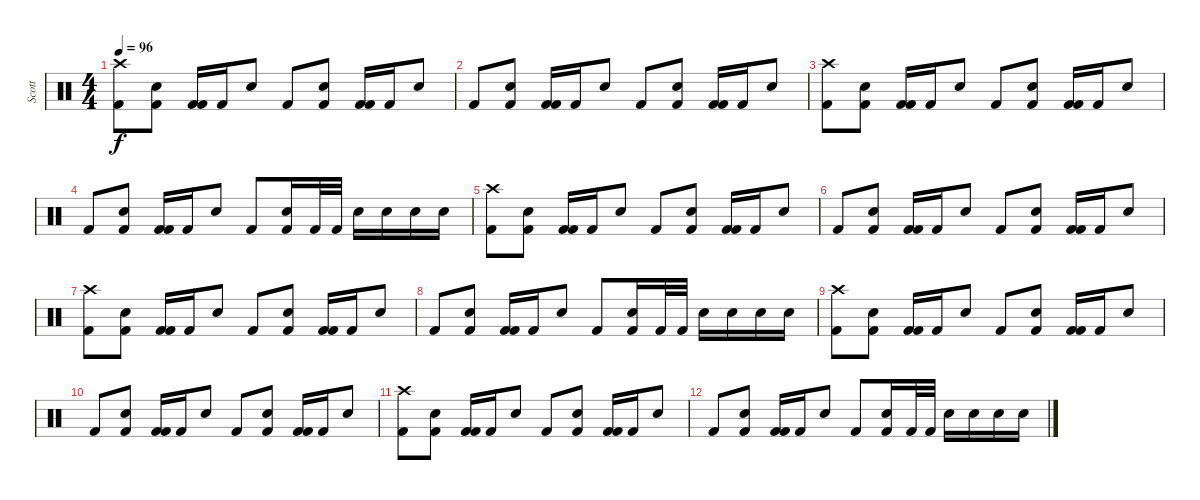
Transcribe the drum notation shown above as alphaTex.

\track ("Scott" "Scott") {instrument percussion}
\staff {score}
\articulation defaults
\ts (4 4)
\tempo 96
\clef neutral
\ks c
("Kick (hit) 2" "Crash high (hit)").8{dy f} ("Kick (hit) 2" "Snare (hit) 2").8 ("Kick (hit) 2" "Kick (hit) 2").16 "Kick (hit) 2".16 "Snare (hit) 2".8 "Kick (hit) 2".8 ("Kick (hit) 2" "Snare (hit) 2").8 ("Kick (hit) 2" "Kick (hit) 2").16 "Kick (hit) 2".16 "Snare (hit) 2".8 |
"Kick (hit) 2".8 ("Kick (hit) 2" "Snare (hit) 2").8 ("Kick (hit) 2" "Kick (hit) 2").16 "Kick (hit) 2".16 "Snare (hit) 2".8 "Kick (hit) 2".8 ("Kick (hit) 2" "Snare (hit) 2").8 ("Kick (hit) 2" "Kick (hit) 2").16 "Kick (hit) 2".16 "Snare (hit) 2".8 |
("Kick (hit) 2" "Crash high (hit)").8 ("Kick (hit) 2" "Snare (hit) 2").8 ("Kick (hit) 2" "Kick (hit) 2").16 "Kick (hit) 2".16 "Snare (hit) 2".8 "Kick (hit) 2".8 ("Kick (hit) 2" "Snare (hit) 2").8 ("Kick (hit) 2" "Kick (hit) 2").16 "Kick (hit) 2".16 "Snare (hit) 2".8 |
"Kick (hit) 2".8 ("Kick (hit) 2" "Snare (hit) 2").8 ("Kick (hit) 2" "Kick (hit) 2").16 "Kick (hit) 2".16 "Snare (hit) 2".8 "Kick (hit) 2".8 ("Kick (hit) 2" "Snare (hit) 2").16 "Kick (hit) 2".32 "Kick (hit) 2".32 "Snare (hit) 2".16 "Snare (hit) 2".16 "Snare (hit) 2".16 "Snare (hit) 2".16 |
("Kick (hit) 2" "Crash high (hit)").8 ("Kick (hit) 2" "Snare (hit) 2").8 ("Kick (hit) 2" "Kick (hit) 2").16 "Kick (hit) 2".16 "Snare (hit) 2".8 "Kick (hit) 2".8 ("Kick (hit) 2" "Snare (hit) 2").8 ("Kick (hit) 2" "Kick (hit) 2").16 "Kick (hit) 2".16 "Snare (hit) 2".8 |
"Kick (hit) 2".8 ("Kick (hit) 2" "Snare (hit) 2").8 ("Kick (hit) 2" "Kick (hit) 2").16 "Kick (hit) 2".16 "Snare (hit) 2".8 "Kick (hit) 2".8 ("Kick (hit) 2" "Snare (hit) 2").8 ("Kick (hit) 2" "Kick (hit) 2").16 "Kick (hit) 2".16 "Snare (hit) 2".8 |
("Kick (hit) 2" "Crash high (hit)").8 ("Kick (hit) 2" "Snare (hit) 2").8 ("Kick (hit) 2" "Kick (hit) 2").16 "Kick (hit) 2".16 "Snare (hit) 2".8 "Kick (hit) 2".8 ("Kick (hit) 2" "Snare (hit) 2").8 ("Kick (hit) 2" "Kick (hit) 2").16 "Kick (hit) 2".16 "Snare (hit) 2".8 |
"Kick (hit) 2".8 ("Kick (hit) 2" "Snare (hit) 2").8 ("Kick (hit) 2" "Kick (hit) 2").16 "Kick (hit) 2".16 "Snare (hit) 2".8 "Kick (hit) 2".8 ("Kick (hit) 2" "Snare (hit) 2").16 "Kick (hit) 2".32 "Kick (hit) 2".32 "Snare (hit) 2".16 "Snare (hit) 2".16 "Snare (hit) 2".16 "Snare (hit) 2".16 |
("Kick (hit) 2" "Crash high (hit)").8 ("Kick (hit) 2" "Snare (hit) 2").8 ("Kick (hit) 2" "Kick (hit) 2").16 "Kick (hit) 2".16 "Snare (hit) 2".8 "Kick (hit) 2".8 ("Kick (hit) 2" "Snare (hit) 2").8 ("Kick (hit) 2" "Kick (hit) 2").16 "Kick (hit) 2".16 "Snare (hit) 2".8 |
"Kick (hit) 2".8 ("Kick (hit) 2" "Snare (hit) 2").8 ("Kick (hit) 2" "Kick (hit) 2").16 "Kick (hit) 2".16 "Snare (hit) 2".8 "Kick (hit) 2".8 ("Kick (hit) 2" "Snare (hit) 2").8 ("Kick (hit) 2" "Kick (hit) 2").16 "Kick (hit) 2".16 "Snare (hit) 2".8 |
("Kick (hit) 2" "Crash high (hit)").8 ("Kick (hit) 2" "Snare (hit) 2").8 ("Kick (hit) 2" "Kick (hit) 2").16 "Kick (hit) 2".16 "Snare (hit) 2".8 "Kick (hit) 2".8 ("Kick (hit) 2" "Snare (hit) 2").8 ("Kick (hit) 2" "Kick (hit) 2").16 "Kick (hit) 2".16 "Snare (hit) 2".8 |
"Kick (hit) 2".8 ("Kick (hit) 2" "Snare (hit) 2").8 ("Kick (hit) 2" "Kick (hit) 2").16 "Kick (hit) 2".16 "Snare (hit) 2".8 "Kick (hit) 2".8 ("Kick (hit) 2" "Snare (hit) 2").16 "Kick (hit) 2".32 "Kick (hit) 2".32 "Snare (hit) 2".16 "Snare (hit) 2".16 "Snare (hit) 2".16 "Snare (hit) 2".16
